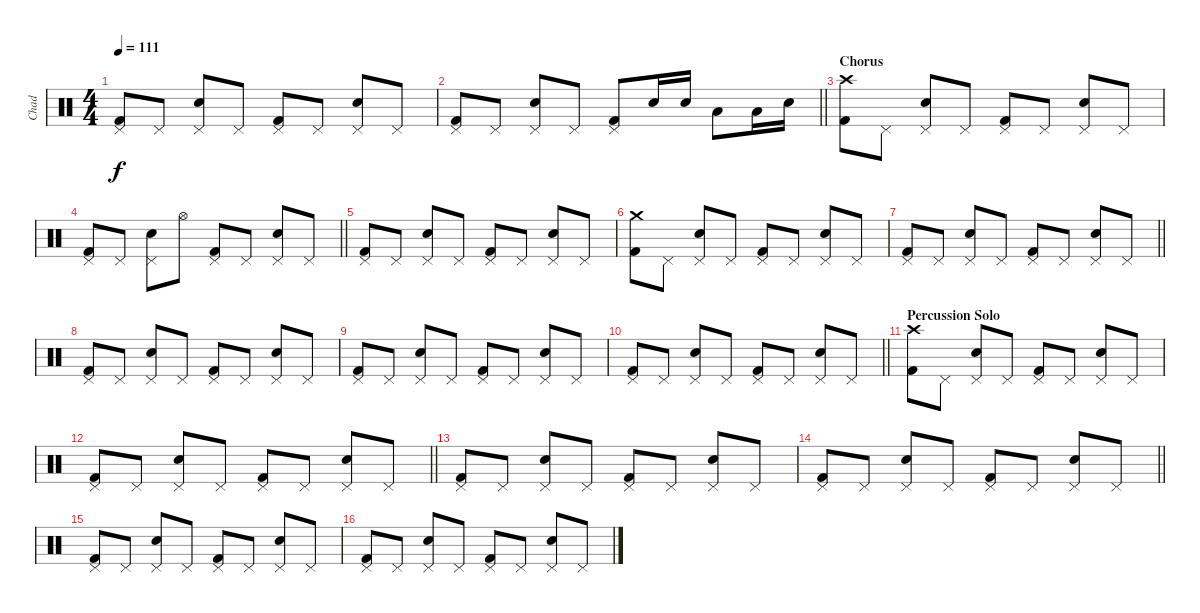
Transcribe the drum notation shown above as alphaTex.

\track ("Chad" "Chad") {instrument percussion}
\staff {score}
\articulation defaults
\ts (4 4)
\tempo 111
\clef neutral
\ks c
("Pedal Hi-Hat (hit)" "Kick (hit) 2").8{dy f} "Pedal Hi-Hat (hit)".8 ("Pedal Hi-Hat (hit)" "Snare (hit) 2").8 "Pedal Hi-Hat (hit)".8 ("Pedal Hi-Hat (hit)" "Kick (hit) 2").8 "Pedal Hi-Hat (hit)".8 ("Pedal Hi-Hat (hit)" "Snare (hit) 2").8 "Pedal Hi-Hat (hit)".8 |
\barLineRight lightlight
("Pedal Hi-Hat (hit)" "Kick (hit) 2").8 "Pedal Hi-Hat (hit)".8 ("Pedal Hi-Hat (hit)" "Snare (hit) 2").8 "Pedal Hi-Hat (hit)".8 ("Pedal Hi-Hat (hit)" "Kick (hit) 2").8 "Snare (hit) 2".16 "Snare (hit) 2".16 "Low Floor Tom (hit)".8 "Low Tom (hit)".16 "Snare (hit) 2".16 |
\section ("" "Chorus")
("Crash high (hit)" "Kick (hit) 2").8 "Pedal Hi-Hat (hit)".8 ("Pedal Hi-Hat (hit)" "Snare (hit) 2").8 "Pedal Hi-Hat (hit)".8 ("Pedal Hi-Hat (hit)" "Kick (hit) 2").8 "Pedal Hi-Hat (hit)".8 ("Pedal Hi-Hat (hit)" "Snare (hit) 2").8 "Pedal Hi-Hat (hit)".8 |
\barLineRight lightlight
("Pedal Hi-Hat (hit)" "Kick (hit) 2").8 "Pedal Hi-Hat (hit)".8 ("Pedal Hi-Hat (hit)" "Snare (hit) 2").8 "Hi-Hat (open)".8 ("Pedal Hi-Hat (hit)" "Kick (hit) 2").8 "Pedal Hi-Hat (hit)".8 ("Pedal Hi-Hat (hit)" "Snare (hit) 2").8 "Pedal Hi-Hat (hit)".8 |
("Pedal Hi-Hat (hit)" "Kick (hit) 2").8 "Pedal Hi-Hat (hit)".8 ("Pedal Hi-Hat (hit)" "Snare (hit) 2").8 "Pedal Hi-Hat (hit)".8 ("Pedal Hi-Hat (hit)" "Kick (hit) 2").8 "Pedal Hi-Hat (hit)".8 ("Pedal Hi-Hat (hit)" "Snare (hit) 2").8 "Pedal Hi-Hat (hit)".8 |
("Crash medium (hit)" "Kick (hit) 2").8 "Pedal Hi-Hat (hit)".8 ("Pedal Hi-Hat (hit)" "Snare (hit) 2").8 "Pedal Hi-Hat (hit)".8 ("Pedal Hi-Hat (hit)" "Kick (hit) 2").8 "Pedal Hi-Hat (hit)".8 ("Pedal Hi-Hat (hit)" "Snare (hit) 2").8 "Pedal Hi-Hat (hit)".8 |
\barLineRight lightlight
("Pedal Hi-Hat (hit)" "Kick (hit) 2").8 "Pedal Hi-Hat (hit)".8 ("Pedal Hi-Hat (hit)" "Snare (hit) 2").8 "Pedal Hi-Hat (hit)".8 ("Pedal Hi-Hat (hit)" "Kick (hit) 2").8 "Pedal Hi-Hat (hit)".8 ("Pedal Hi-Hat (hit)" "Snare (hit) 2").8 "Pedal Hi-Hat (hit)".8 |
("Pedal Hi-Hat (hit)" "Kick (hit) 2").8 "Pedal Hi-Hat (hit)".8 ("Pedal Hi-Hat (hit)" "Snare (hit) 2").8 "Pedal Hi-Hat (hit)".8 ("Pedal Hi-Hat (hit)" "Kick (hit) 2").8 "Pedal Hi-Hat (hit)".8 ("Pedal Hi-Hat (hit)" "Snare (hit) 2").8 "Pedal Hi-Hat (hit)".8 |
("Pedal Hi-Hat (hit)" "Kick (hit) 2").8 "Pedal Hi-Hat (hit)".8 ("Pedal Hi-Hat (hit)" "Snare (hit) 2").8 "Pedal Hi-Hat (hit)".8 ("Pedal Hi-Hat (hit)" "Kick (hit) 2").8 "Pedal Hi-Hat (hit)".8 ("Pedal Hi-Hat (hit)" "Snare (hit) 2").8 "Pedal Hi-Hat (hit)".8 |
\barLineRight lightlight
("Pedal Hi-Hat (hit)" "Kick (hit) 2").8 "Pedal Hi-Hat (hit)".8 ("Pedal Hi-Hat (hit)" "Snare (hit) 2").8 "Pedal Hi-Hat (hit)".8 ("Pedal Hi-Hat (hit)" "Kick (hit) 2").8 "Pedal Hi-Hat (hit)".8 ("Pedal Hi-Hat (hit)" "Snare (hit) 2").8 "Pedal Hi-Hat (hit)".8 |
\section ("" "Percussion Solo")
("Crash high (hit)" "Kick (hit) 2").8 "Pedal Hi-Hat (hit)".8 ("Pedal Hi-Hat (hit)" "Snare (hit) 2").8 "Pedal Hi-Hat (hit)".8 ("Pedal Hi-Hat (hit)" "Kick (hit) 2").8 "Pedal Hi-Hat (hit)".8 ("Pedal Hi-Hat (hit)" "Snare (hit) 2").8 "Pedal Hi-Hat (hit)".8 |
\barLineRight lightlight
("Pedal Hi-Hat (hit)" "Kick (hit) 2").8 "Pedal Hi-Hat (hit)".8 ("Pedal Hi-Hat (hit)" "Snare (hit) 2").8 "Pedal Hi-Hat (hit)".8 ("Pedal Hi-Hat (hit)" "Kick (hit) 2").8 "Pedal Hi-Hat (hit)".8 ("Pedal Hi-Hat (hit)" "Snare (hit) 2").8 "Pedal Hi-Hat (hit)".8 |
("Pedal Hi-Hat (hit)" "Kick (hit) 2").8 "Pedal Hi-Hat (hit)".8 ("Pedal Hi-Hat (hit)" "Snare (hit) 2").8 "Pedal Hi-Hat (hit)".8 ("Pedal Hi-Hat (hit)" "Kick (hit) 2").8 "Pedal Hi-Hat (hit)".8 ("Pedal Hi-Hat (hit)" "Snare (hit) 2").8 "Pedal Hi-Hat (hit)".8 |
\barLineRight lightlight
("Pedal Hi-Hat (hit)" "Kick (hit) 2").8 "Pedal Hi-Hat (hit)".8 ("Pedal Hi-Hat (hit)" "Snare (hit) 2").8 "Pedal Hi-Hat (hit)".8 ("Pedal Hi-Hat (hit)" "Kick (hit) 2").8 "Pedal Hi-Hat (hit)".8 ("Pedal Hi-Hat (hit)" "Snare (hit) 2").8 "Pedal Hi-Hat (hit)".8 |
("Pedal Hi-Hat (hit)" "Kick (hit) 2").8 "Pedal Hi-Hat (hit)".8 ("Pedal Hi-Hat (hit)" "Snare (hit) 2").8 "Pedal Hi-Hat (hit)".8 ("Pedal Hi-Hat (hit)" "Kick (hit) 2").8 "Pedal Hi-Hat (hit)".8 ("Pedal Hi-Hat (hit)" "Snare (hit) 2").8 "Pedal Hi-Hat (hit)".8 |
("Pedal Hi-Hat (hit)" "Kick (hit) 2").8 "Pedal Hi-Hat (hit)".8 ("Pedal Hi-Hat (hit)" "Snare (hit) 2").8 "Pedal Hi-Hat (hit)".8 ("Pedal Hi-Hat (hit)" "Kick (hit) 2").8 "Pedal Hi-Hat (hit)".8 ("Pedal Hi-Hat (hit)" "Snare (hit) 2").8 "Pedal Hi-Hat (hit)".8
